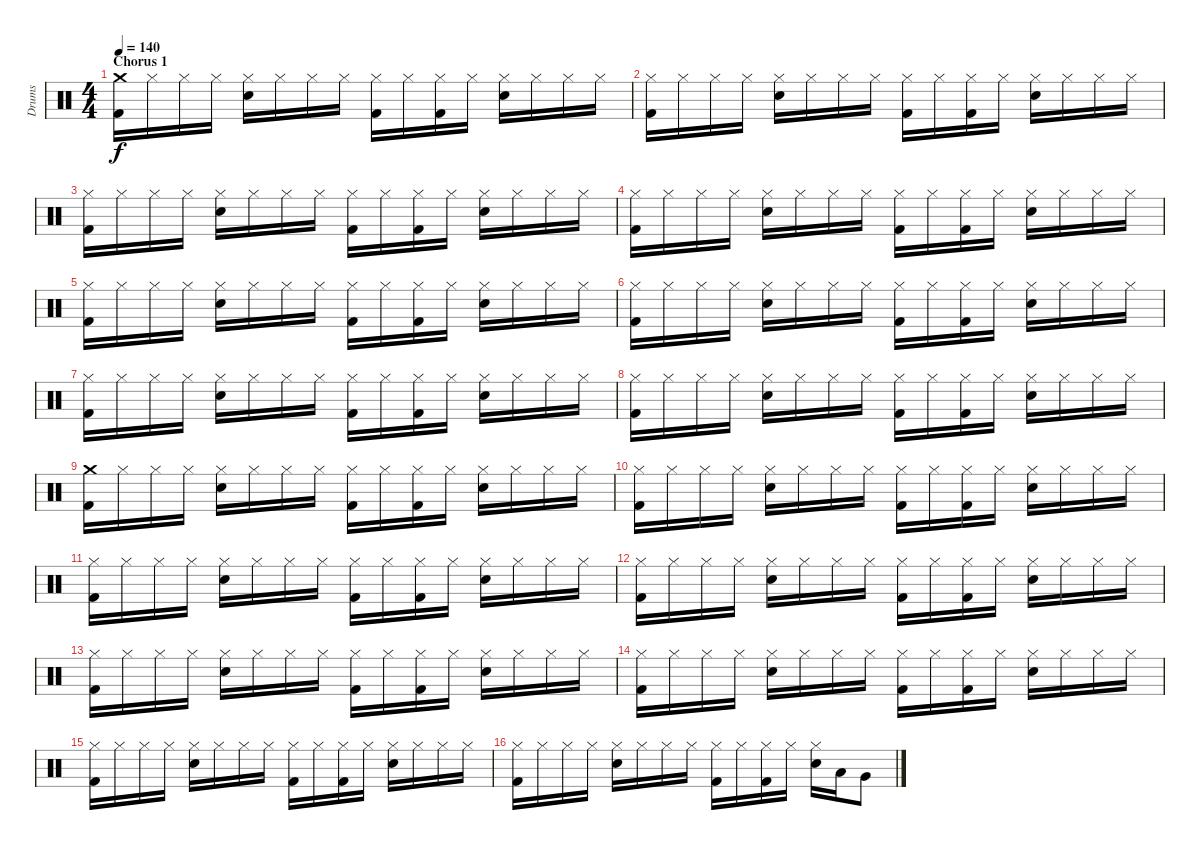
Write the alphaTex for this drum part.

\track ("Drums" "Drums") {instrument percussion}
\staff {score}
\articulation defaults
\ts (4 4)
\section ("" "Chorus 1")
\tempo 140
\clef neutral
\ks c
("Crash medium (hit)" "Kick (hit) 2").16{dy f} "Hi-Hat (closed)".16 "Hi-Hat (closed)".16 "Hi-Hat (closed)".16 ("Hi-Hat (closed)" "Snare (hit) 2").16 "Hi-Hat (closed)".16 "Hi-Hat (closed)".16 "Hi-Hat (closed)".16 ("Hi-Hat (closed)" "Kick (hit) 2").16 "Hi-Hat (closed)".16 ("Hi-Hat (closed)" "Kick (hit) 2").16 "Hi-Hat (closed)".16 ("Hi-Hat (closed)" "Snare (hit) 2").16 "Hi-Hat (closed)".16 "Hi-Hat (closed)".16 "Hi-Hat (closed)".16 |
("Hi-Hat (closed)" "Kick (hit) 2").16 "Hi-Hat (closed)".16 "Hi-Hat (closed)".16 "Hi-Hat (closed)".16 ("Hi-Hat (closed)" "Snare (hit) 2").16 "Hi-Hat (closed)".16 "Hi-Hat (closed)".16 "Hi-Hat (closed)".16 ("Hi-Hat (closed)" "Kick (hit) 2").16 "Hi-Hat (closed)".16 ("Hi-Hat (closed)" "Kick (hit) 2").16 "Hi-Hat (closed)".16 ("Hi-Hat (closed)" "Snare (hit) 2").16 "Hi-Hat (closed)".16 "Hi-Hat (closed)".16 "Hi-Hat (closed)".16 |
("Hi-Hat (closed)" "Kick (hit) 2").16 "Hi-Hat (closed)".16 "Hi-Hat (closed)".16 "Hi-Hat (closed)".16 ("Hi-Hat (closed)" "Snare (hit) 2").16 "Hi-Hat (closed)".16 "Hi-Hat (closed)".16 "Hi-Hat (closed)".16 ("Hi-Hat (closed)" "Kick (hit) 2").16 "Hi-Hat (closed)".16 ("Hi-Hat (closed)" "Kick (hit) 2").16 "Hi-Hat (closed)".16 ("Hi-Hat (closed)" "Snare (hit) 2").16 "Hi-Hat (closed)".16 "Hi-Hat (closed)".16 "Hi-Hat (closed)".16 |
("Hi-Hat (closed)" "Kick (hit) 2").16 "Hi-Hat (closed)".16 "Hi-Hat (closed)".16 "Hi-Hat (closed)".16 ("Hi-Hat (closed)" "Snare (hit) 2").16 "Hi-Hat (closed)".16 "Hi-Hat (closed)".16 "Hi-Hat (closed)".16 ("Hi-Hat (closed)" "Kick (hit) 2").16 "Hi-Hat (closed)".16 ("Hi-Hat (closed)" "Kick (hit) 2").16 "Hi-Hat (closed)".16 ("Hi-Hat (closed)" "Snare (hit) 2").16 "Hi-Hat (closed)".16 "Hi-Hat (closed)".16 "Hi-Hat (closed)".16 |
("Hi-Hat (closed)" "Kick (hit) 2").16 "Hi-Hat (closed)".16 "Hi-Hat (closed)".16 "Hi-Hat (closed)".16 ("Hi-Hat (closed)" "Snare (hit) 2").16 "Hi-Hat (closed)".16 "Hi-Hat (closed)".16 "Hi-Hat (closed)".16 ("Hi-Hat (closed)" "Kick (hit) 2").16 "Hi-Hat (closed)".16 ("Hi-Hat (closed)" "Kick (hit) 2").16 "Hi-Hat (closed)".16 ("Hi-Hat (closed)" "Snare (hit) 2").16 "Hi-Hat (closed)".16 "Hi-Hat (closed)".16 "Hi-Hat (closed)".16 |
("Hi-Hat (closed)" "Kick (hit) 2").16 "Hi-Hat (closed)".16 "Hi-Hat (closed)".16 "Hi-Hat (closed)".16 ("Hi-Hat (closed)" "Snare (hit) 2").16 "Hi-Hat (closed)".16 "Hi-Hat (closed)".16 "Hi-Hat (closed)".16 ("Hi-Hat (closed)" "Kick (hit) 2").16 "Hi-Hat (closed)".16 ("Hi-Hat (closed)" "Kick (hit) 2").16 "Hi-Hat (closed)".16 ("Hi-Hat (closed)" "Snare (hit) 2").16 "Hi-Hat (closed)".16 "Hi-Hat (closed)".16 "Hi-Hat (closed)".16 |
("Hi-Hat (closed)" "Kick (hit) 2").16 "Hi-Hat (closed)".16 "Hi-Hat (closed)".16 "Hi-Hat (closed)".16 ("Hi-Hat (closed)" "Snare (hit) 2").16 "Hi-Hat (closed)".16 "Hi-Hat (closed)".16 "Hi-Hat (closed)".16 ("Hi-Hat (closed)" "Kick (hit) 2").16 "Hi-Hat (closed)".16 ("Hi-Hat (closed)" "Kick (hit) 2").16 "Hi-Hat (closed)".16 ("Hi-Hat (closed)" "Snare (hit) 2").16 "Hi-Hat (closed)".16 "Hi-Hat (closed)".16 "Hi-Hat (closed)".16 |
("Hi-Hat (closed)" "Kick (hit) 2").16 "Hi-Hat (closed)".16 "Hi-Hat (closed)".16 "Hi-Hat (closed)".16 ("Hi-Hat (closed)" "Snare (hit) 2").16 "Hi-Hat (closed)".16 "Hi-Hat (closed)".16 "Hi-Hat (closed)".16 ("Hi-Hat (closed)" "Kick (hit) 2").16 "Hi-Hat (closed)".16 ("Hi-Hat (closed)" "Kick (hit) 2").16 "Hi-Hat (closed)".16 ("Hi-Hat (closed)" "Snare (hit) 2").16 "Hi-Hat (closed)".16 "Hi-Hat (closed)".16 "Hi-Hat (closed)".16 |
("Crash medium (hit)" "Kick (hit) 2").16 "Hi-Hat (closed)".16 "Hi-Hat (closed)".16 "Hi-Hat (closed)".16 ("Hi-Hat (closed)" "Snare (hit) 2").16 "Hi-Hat (closed)".16 "Hi-Hat (closed)".16 "Hi-Hat (closed)".16 ("Hi-Hat (closed)" "Kick (hit) 2").16 "Hi-Hat (closed)".16 ("Hi-Hat (closed)" "Kick (hit) 2").16 "Hi-Hat (closed)".16 ("Hi-Hat (closed)" "Snare (hit) 2").16 "Hi-Hat (closed)".16 "Hi-Hat (closed)".16 "Hi-Hat (closed)".16 |
("Hi-Hat (closed)" "Kick (hit) 2").16 "Hi-Hat (closed)".16 "Hi-Hat (closed)".16 "Hi-Hat (closed)".16 ("Hi-Hat (closed)" "Snare (hit) 2").16 "Hi-Hat (closed)".16 "Hi-Hat (closed)".16 "Hi-Hat (closed)".16 ("Hi-Hat (closed)" "Kick (hit) 2").16 "Hi-Hat (closed)".16 ("Hi-Hat (closed)" "Kick (hit) 2").16 "Hi-Hat (closed)".16 ("Hi-Hat (closed)" "Snare (hit) 2").16 "Hi-Hat (closed)".16 "Hi-Hat (closed)".16 "Hi-Hat (closed)".16 |
("Hi-Hat (closed)" "Kick (hit) 2").16 "Hi-Hat (closed)".16 "Hi-Hat (closed)".16 "Hi-Hat (closed)".16 ("Hi-Hat (closed)" "Snare (hit) 2").16 "Hi-Hat (closed)".16 "Hi-Hat (closed)".16 "Hi-Hat (closed)".16 ("Hi-Hat (closed)" "Kick (hit) 2").16 "Hi-Hat (closed)".16 ("Hi-Hat (closed)" "Kick (hit) 2").16 "Hi-Hat (closed)".16 ("Hi-Hat (closed)" "Snare (hit) 2").16 "Hi-Hat (closed)".16 "Hi-Hat (closed)".16 "Hi-Hat (closed)".16 |
("Hi-Hat (closed)" "Kick (hit) 2").16 "Hi-Hat (closed)".16 "Hi-Hat (closed)".16 "Hi-Hat (closed)".16 ("Hi-Hat (closed)" "Snare (hit) 2").16 "Hi-Hat (closed)".16 "Hi-Hat (closed)".16 "Hi-Hat (closed)".16 ("Hi-Hat (closed)" "Kick (hit) 2").16 "Hi-Hat (closed)".16 ("Hi-Hat (closed)" "Kick (hit) 2").16 "Hi-Hat (closed)".16 ("Hi-Hat (closed)" "Snare (hit) 2").16 "Hi-Hat (closed)".16 "Hi-Hat (closed)".16 "Hi-Hat (closed)".16 |
("Hi-Hat (closed)" "Kick (hit) 2").16 "Hi-Hat (closed)".16 "Hi-Hat (closed)".16 "Hi-Hat (closed)".16 ("Hi-Hat (closed)" "Snare (hit) 2").16 "Hi-Hat (closed)".16 "Hi-Hat (closed)".16 "Hi-Hat (closed)".16 ("Hi-Hat (closed)" "Kick (hit) 2").16 "Hi-Hat (closed)".16 ("Hi-Hat (closed)" "Kick (hit) 2").16 "Hi-Hat (closed)".16 ("Hi-Hat (closed)" "Snare (hit) 2").16 "Hi-Hat (closed)".16 "Hi-Hat (closed)".16 "Hi-Hat (closed)".16 |
("Hi-Hat (closed)" "Kick (hit) 2").16 "Hi-Hat (closed)".16 "Hi-Hat (closed)".16 "Hi-Hat (closed)".16 ("Hi-Hat (closed)" "Snare (hit) 2").16 "Hi-Hat (closed)".16 "Hi-Hat (closed)".16 "Hi-Hat (closed)".16 ("Hi-Hat (closed)" "Kick (hit) 2").16 "Hi-Hat (closed)".16 ("Hi-Hat (closed)" "Kick (hit) 2").16 "Hi-Hat (closed)".16 ("Hi-Hat (closed)" "Snare (hit) 2").16 "Hi-Hat (closed)".16 "Hi-Hat (closed)".16 "Hi-Hat (closed)".16 |
("Hi-Hat (closed)" "Kick (hit) 2").16 "Hi-Hat (closed)".16 "Hi-Hat (closed)".16 "Hi-Hat (closed)".16 ("Hi-Hat (closed)" "Snare (hit) 2").16 "Hi-Hat (closed)".16 "Hi-Hat (closed)".16 "Hi-Hat (closed)".16 ("Hi-Hat (closed)" "Kick (hit) 2").16 "Hi-Hat (closed)".16 ("Hi-Hat (closed)" "Kick (hit) 2").16 "Hi-Hat (closed)".16 ("Hi-Hat (closed)" "Snare (hit) 2").16 "Hi-Hat (closed)".16 "Hi-Hat (closed)".16 "Hi-Hat (closed)".16 |
("Hi-Hat (closed)" "Kick (hit) 2").16 "Hi-Hat (closed)".16 "Hi-Hat (closed)".16 "Hi-Hat (closed)".16 ("Hi-Hat (closed)" "Snare (hit) 2").16 "Hi-Hat (closed)".16 "Hi-Hat (closed)".16 "Hi-Hat (closed)".16 ("Hi-Hat (closed)" "Kick (hit) 2").16 "Hi-Hat (closed)".16 ("Hi-Hat (closed)" "Kick (hit) 2").16 "Hi-Hat (closed)".16 ("Hi-Hat (closed)" "Snare (hit) 2").16 "Low Tom (hit)".16 "Very Low Tom (hit)".8
